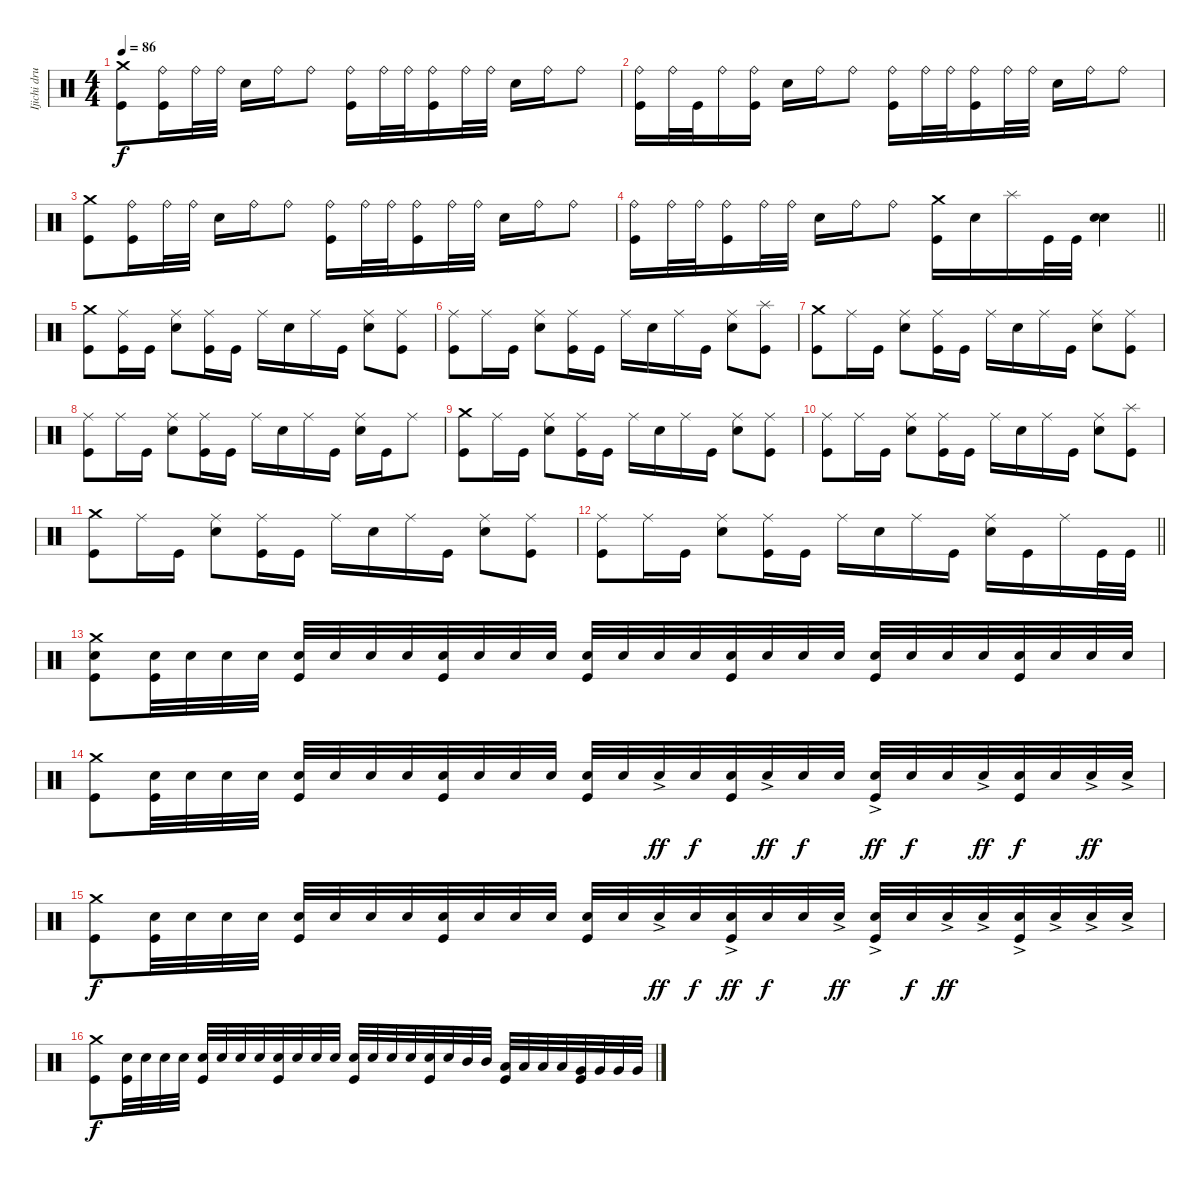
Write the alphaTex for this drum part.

\track ("Ijichi drums" "Ijichi dru") {instrument percussion}
\staff {score}
\articulation defaults
\ts (4 4)
\tempo 86
\clef neutral
\ks c
("Crash medium (hit)" "Kick (hit)").8{dy f} ("Ride (bell)" "Kick (hit)").16 "Ride (bell)".32 "Ride (bell)".32 "Electric Snare (hit)".16 "Ride (bell)".16 "Ride (bell)".8 ("Ride (bell)" "Kick (hit)").16 "Ride (bell)".32 "Ride (bell)".32 ("Ride (bell)" "Kick (hit)").16 "Ride (bell)".32 "Ride (bell)".32 "Electric Snare (hit)".16 "Ride (bell)".16 "Ride (bell)".8 |
("Ride (bell)" "Kick (hit)").16 "Ride (bell)".32 "Kick (hit)".32 "Ride (bell)".16 ("Ride (bell)" "Kick (hit)").16 "Electric Snare (hit)".16 "Ride (bell)".16 "Ride (bell)".8 ("Ride (bell)" "Kick (hit)").16 "Ride (bell)".32 "Ride (bell)".32 ("Ride (bell)" "Kick (hit)").16 "Ride (bell)".32 "Ride (bell)".32 "Electric Snare (hit)".16 "Ride (bell)".16 "Ride (bell)".8 |
("Crash medium (hit)" "Kick (hit)").8 ("Ride (bell)" "Kick (hit)").16 "Ride (bell)".32 "Ride (bell)".32 "Electric Snare (hit)".16 "Ride (bell)".16 "Ride (bell)".8 ("Ride (bell)" "Kick (hit)").16 "Ride (bell)".32 "Ride (bell)".32 ("Ride (bell)" "Kick (hit)").16 "Ride (bell)".32 "Ride (bell)".32 "Electric Snare (hit)".16 "Ride (bell)".16 "Ride (bell)".8 |
\barLineRight lightlight
("Ride (bell)" "Kick (hit)").16 "Ride (bell)".32 "Ride (bell)".32 ("Ride (bell)" "Kick (hit)").16 "Ride (bell)".32 "Ride (bell)".32 "Electric Snare (hit)".16 "Ride (bell)".16 "Ride (bell)".8 ("Crash medium (hit)" "Kick (hit)").16 "Electric Snare (hit)".16 "Splash (hit)".16 "Kick (hit)".32 "Kick (hit)".32 ("Electric Snare (hit)" "Electric Snare (hit)").4 |
("Crash medium (hit)" "Kick (hit)").8 ("Ride (middle)" "Kick (hit)").16 "Kick (hit)".16 ("Ride (middle)" "Electric Snare (hit)").8 ("Ride (middle)" "Kick (hit)").16 "Kick (hit)".16 "Ride (middle)".16 "Electric Snare (hit)".16 "Ride (middle)".16 "Kick (hit)".16 ("Ride (middle)" "Electric Snare (hit)").8 ("Ride (middle)" "Kick (hit)").8 |
("Ride (middle)" "Kick (hit)").8 "Ride (middle)".16 "Kick (hit)".16 ("Ride (middle)" "Electric Snare (hit)").8 ("Ride (middle)" "Kick (hit)").16 "Kick (hit)".16 "Ride (middle)".16 "Electric Snare (hit)".16 "Ride (middle)".16 "Kick (hit)".16 ("Ride (middle)" "Electric Snare (hit)").8 ("Splash (hit)" "Kick (hit)").8 |
("Crash medium (hit)" "Kick (hit)").8 "Ride (middle)".16 "Kick (hit)".16 ("Ride (middle)" "Electric Snare (hit)").8 ("Ride (middle)" "Kick (hit)").16 "Kick (hit)".16 "Ride (middle)".16 "Electric Snare (hit)".16 "Ride (middle)".16 "Kick (hit)".16 ("Ride (middle)" "Electric Snare (hit)").8 ("Ride (middle)" "Kick (hit)").8 |
("Ride (middle)" "Kick (hit)").8 "Ride (middle)".16 "Kick (hit)".16 ("Ride (middle)" "Electric Snare (hit)").8 ("Ride (middle)" "Kick (hit)").16 "Kick (hit)".16 "Ride (middle)".16 "Electric Snare (hit)".16 "Ride (middle)".16 "Kick (hit)".16 ("Ride (middle)" "Electric Snare (hit)").16 "Kick (hit)".16 "Ride (middle)".8 |
("Crash medium (hit)" "Kick (hit)").8 "Ride (middle)".16 "Kick (hit)".16 ("Ride (middle)" "Electric Snare (hit)").8 ("Ride (middle)" "Kick (hit)").16 "Kick (hit)".16 "Ride (middle)".16 "Electric Snare (hit)".16 "Ride (middle)".16 "Kick (hit)".16 ("Ride (middle)" "Electric Snare (hit)").8 ("Ride (middle)" "Kick (hit)").8 |
("Ride (middle)" "Kick (hit)").8 "Ride (middle)".16 "Kick (hit)".16 ("Ride (middle)" "Electric Snare (hit)").8 ("Ride (middle)" "Kick (hit)").16 "Kick (hit)".16 "Ride (middle)".16 "Electric Snare (hit)".16 "Ride (middle)".16 "Kick (hit)".16 ("Ride (middle)" "Electric Snare (hit)").8 ("Splash (hit)" "Kick (hit)").8 |
("Crash medium (hit)" "Kick (hit)").8 "Ride (middle)".16 "Kick (hit)".16 ("Ride (middle)" "Electric Snare (hit)").8 ("Ride (middle)" "Kick (hit)").16 "Kick (hit)".16 "Ride (middle)".16 "Electric Snare (hit)".16 "Ride (middle)".16 "Kick (hit)".16 ("Ride (middle)" "Electric Snare (hit)").8 ("Ride (middle)" "Kick (hit)").8 |
\barLineRight lightlight
("Ride (middle)" "Kick (hit)").8 "Ride (middle)".16 "Kick (hit)".16 ("Ride (middle)" "Electric Snare (hit)").8 ("Ride (middle)" "Kick (hit)").16 "Kick (hit)".16 "Ride (middle)".16 "Electric Snare (hit)".16 "Ride (middle)".16 "Kick (hit)".16 ("Ride (middle)" "Electric Snare (hit)").16 "Kick (hit)".16 "Ride (middle)".16 "Kick (hit)".32 "Kick (hit)".32 |
("Crash medium (hit)" "Electric Snare (hit)" "Kick (hit)").8 ("Electric Snare (hit)" "Kick (hit)").32 "Electric Snare (hit)".32 "Electric Snare (hit)".32 "Electric Snare (hit)".32 ("Electric Snare (hit)" "Kick (hit)").32 "Electric Snare (hit)".32 "Electric Snare (hit)".32 "Electric Snare (hit)".32 ("Electric Snare (hit)" "Kick (hit)").32 "Electric Snare (hit)".32 "Electric Snare (hit)".32 "Electric Snare (hit)".32 ("Electric Snare (hit)" "Kick (hit)").32 "Electric Snare (hit)".32 "Electric Snare (hit)".32 "Electric Snare (hit)".32 ("Electric Snare (hit)" "Kick (hit)").32 "Electric Snare (hit)".32 "Electric Snare (hit)".32 "Electric Snare (hit)".32 ("Electric Snare (hit)" "Kick (hit)").32 "Electric Snare (hit)".32 "Electric Snare (hit)".32 "Electric Snare (hit)".32 ("Electric Snare (hit)" "Kick (hit)").32 "Electric Snare (hit)".32 "Electric Snare (hit)".32 "Electric Snare (hit)".32 |
("Crash medium (hit)" "Kick (hit)").8 ("Electric Snare (hit)" "Kick (hit)").32 "Electric Snare (hit)".32 "Electric Snare (hit)".32 "Electric Snare (hit)".32 ("Electric Snare (hit)" "Kick (hit)").32 "Electric Snare (hit)".32 "Electric Snare (hit)".32 "Electric Snare (hit)".32 ("Electric Snare (hit)" "Kick (hit)").32 "Electric Snare (hit)".32 "Electric Snare (hit)".32 "Electric Snare (hit)".32 ("Electric Snare (hit)" "Kick (hit)").32 "Electric Snare (hit)".32 "Electric Snare (hit)"{ac}.32{dy ff} "Electric Snare (hit)".32{dy f} ("Electric Snare (hit)" "Kick (hit)").32 "Electric Snare (hit)"{ac}.32{dy ff} "Electric Snare (hit)".32{dy f} "Electric Snare (hit)".32 ("Electric Snare (hit)"{ac} "Kick (hit)").32{dy ff} "Electric Snare (hit)".32{dy f} "Electric Snare (hit)".32 "Electric Snare (hit)"{ac}.32{dy ff} ("Electric Snare (hit)" "Kick (hit)").32{dy f} "Electric Snare (hit)".32 "Electric Snare (hit)"{ac}.32{dy ff} "Electric Snare (hit)"{ac}.32 |
("Crash medium (hit)" "Kick (hit)").8{dy f} ("Electric Snare (hit)" "Kick (hit)").32 "Electric Snare (hit)".32 "Electric Snare (hit)".32 "Electric Snare (hit)".32 ("Electric Snare (hit)" "Kick (hit)").32 "Electric Snare (hit)".32 "Electric Snare (hit)".32 "Electric Snare (hit)".32 ("Electric Snare (hit)" "Kick (hit)").32 "Electric Snare (hit)".32 "Electric Snare (hit)".32 "Electric Snare (hit)".32 ("Electric Snare (hit)" "Kick (hit)").32 "Electric Snare (hit)".32 "Electric Snare (hit)"{ac}.32{dy ff} "Electric Snare (hit)".32{dy f} ("Electric Snare (hit)"{ac} "Kick (hit)").32{dy ff} "Electric Snare (hit)".32{dy f} "Electric Snare (hit)".32 "Electric Snare (hit)"{ac}.32{dy ff} ("Electric Snare (hit)"{ac} "Kick (hit)").32 "Electric Snare (hit)".32{dy f} "Electric Snare (hit)"{ac}.32{dy ff} "Electric Snare (hit)"{ac}.32 ("Electric Snare (hit)"{ac} "Kick (hit)").32 "Electric Snare (hit)"{ac}.32 "Electric Snare (hit)"{ac}.32 "Electric Snare (hit)"{ac}.32 |
("Crash medium (hit)" "Kick (hit)").8{dy f} ("Electric Snare (hit)" "Kick (hit)").32 "Electric Snare (hit)".32 "Electric Snare (hit)".32 "Electric Snare (hit)".32 ("Electric Snare (hit)" "Kick (hit)").32 "Electric Snare (hit)".32 "Electric Snare (hit)".32 "Electric Snare (hit)".32 ("Electric Snare (hit)" "Kick (hit)").32 "Electric Snare (hit)".32 "Electric Snare (hit)".32 "Electric Snare (hit)".32 ("Electric Snare (hit)" "Kick (hit)").32 "Electric Snare (hit)".32 "Electric Snare (hit)".32 "Electric Snare (hit)".32 ("Electric Snare (hit)" "Kick (hit)").32 "Electric Snare (hit)".32 "Mid Tom (hit)".32 "Mid Tom (hit)".32 ("Low Tom (hit)" "Kick (hit)").32 "Low Tom (hit)".32 "Low Tom (hit)".32 "Low Tom (hit)".32 ("Very Low Tom (hit)" "Kick (hit)").32 "Very Low Tom (hit)".32 "Very Low Tom (hit)".32 "Very Low Tom (hit)".32
